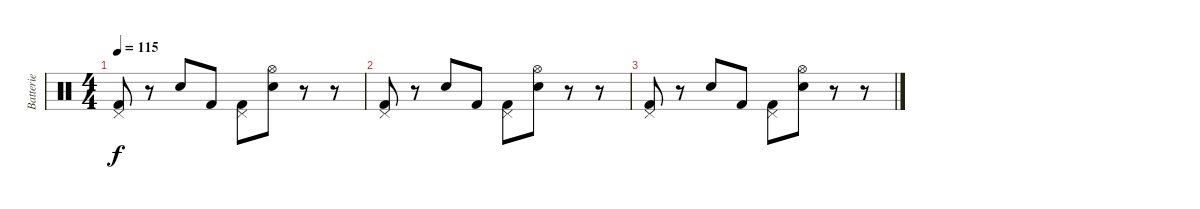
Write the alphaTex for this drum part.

\track ("Batterie" "Batterie") {instrument percussion}
\staff {score}
\articulation defaults
\ts (4 4)
\tempo 115
\clef neutral
\ks c
("Pedal Hi-Hat (hit)" "Kick (hit) 2").8{dy f} r.8 "Electric Snare (hit)".8 "Kick (hit) 2".8 ("Pedal Hi-Hat (hit)" "Kick (hit) 2").8 ("Hi-Hat (open)" "Electric Snare (hit)").8 r.8 r.8 |
("Pedal Hi-Hat (hit)" "Kick (hit) 2").8 r.8 "Electric Snare (hit)".8 "Kick (hit) 2".8 ("Pedal Hi-Hat (hit)" "Kick (hit) 2").8 ("Hi-Hat (open)" "Electric Snare (hit)").8 r.8 r.8 |
("Pedal Hi-Hat (hit)" "Kick (hit) 2").8 r.8 "Electric Snare (hit)".8 "Kick (hit) 2".8 ("Pedal Hi-Hat (hit)" "Kick (hit) 2").8 ("Hi-Hat (open)" "Electric Snare (hit)").8 r.8 r.8
